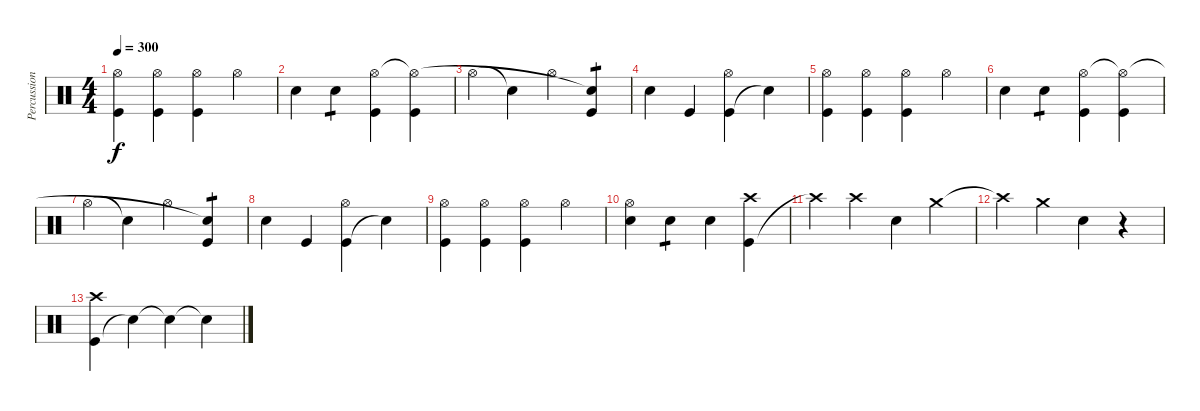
\track ("Percussion" "Percussion") {instrument percussion}
\staff {score}
\articulation defaults
\ts (4 4)
\tempo 300
\clef neutral
\ks c
("Kick (hit)" "Hi-Hat (open)").4{dy f} ("Kick (hit)" "Hi-Hat (open)").4 ("Kick (hit)" "Hi-Hat (open)").4 "Hi-Hat (open)".4 |
"Electric Snare (hit)".4 "Electric Snare (hit)".4{tp 1} ("Kick (hit)" "Hi-Hat (open)").4 ("Kick (hit)" "Hi-Hat (open)"{t}).4 |
"Hi-Hat (open)".4 "Electric Snare (hit)"{t}.4 "Hi-Hat (open)".4 ("Kick (hit)" "Snare (hit)"{t}).4{tp 1} |
"Electric Snare (hit)".4 "Kick (hit)".4 ("Kick (hit)" "Hi-Hat (open)").4 "Snare (hit)"{t}.4 |
("Kick (hit)" "Hi-Hat (open)").4 ("Kick (hit)" "Hi-Hat (open)").4 ("Kick (hit)" "Hi-Hat (open)").4 "Hi-Hat (open)".4 |
"Electric Snare (hit)".4 "Electric Snare (hit)".4{tp 1} ("Kick (hit)" "Hi-Hat (open)").4 ("Kick (hit)" "Hi-Hat (open)"{t}).4 |
"Hi-Hat (open)".4 "Electric Snare (hit)"{t}.4 "Hi-Hat (open)".4 ("Kick (hit)" "Snare (hit)"{t}).4{tp 1} |
"Electric Snare (hit)".4 "Kick (hit)".4 ("Kick (hit)" "Hi-Hat (open)").4 "Snare (hit)"{t}.4 |
("Kick (hit)" "Hi-Hat (open)").4 ("Kick (hit)" "Hi-Hat (open)").4 ("Kick (hit)" "Hi-Hat (open)").4 "Hi-Hat (open)".4 |
("Electric Snare (hit)" "Hi-Hat (open)").4 "Electric Snare (hit)".4{tp 1} "Electric Snare (hit)".4 ("Kick (hit)" "Crash high (hit)").4 |
"Crash high (hit)"{t}.4 "Crash high (hit)".4 "Electric Snare (hit)".4 "Crash medium (hit)".4 |
"Crash high (hit)"{t}.4 "Crash medium (hit)".4 "Electric Snare (hit)".4 r.4 |
("Kick (hit)" "Crash high (hit)").4 "Snare (hit)"{t}.4 "Snare (hit)"{t}.4 "Snare (hit)"{t}.4
